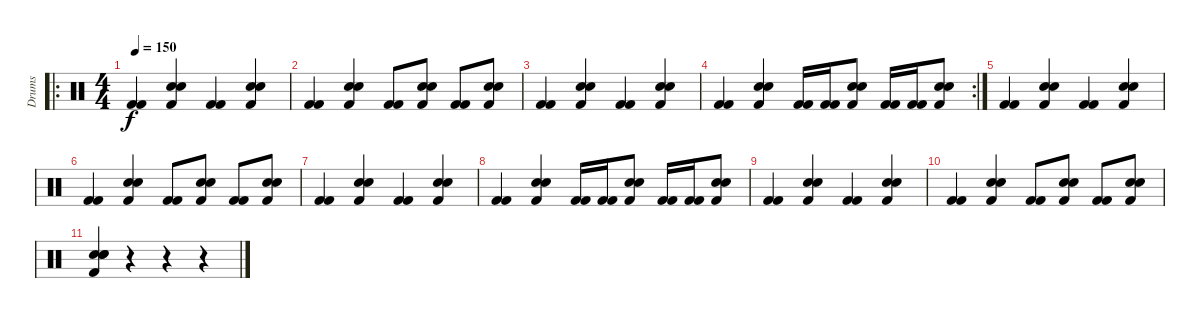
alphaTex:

\track ("Drums" "Drums") {instrument percussion}
\staff {score}
\articulation defaults
\ro
\ts (4 4)
\tempo 150
\clef neutral
\ks c
("Kick (hit) 2" "Kick (hit) 2").4{dy f} ("Snare (hit) 2" "Snare (hit) 2" "Kick (hit) 2").4 ("Kick (hit) 2" "Kick (hit) 2").4 ("Snare (hit) 2" "Snare (hit) 2" "Kick (hit) 2").4 |
("Kick (hit) 2" "Kick (hit) 2").4 ("Snare (hit) 2" "Snare (hit) 2" "Kick (hit) 2").4 ("Kick (hit) 2" "Kick (hit) 2").8 ("Snare (hit) 2" "Snare (hit) 2" "Kick (hit) 2").8 ("Kick (hit) 2" "Kick (hit) 2").8 ("Snare (hit) 2" "Snare (hit) 2" "Kick (hit) 2").8 |
("Kick (hit) 2" "Kick (hit) 2").4 ("Snare (hit) 2" "Snare (hit) 2" "Kick (hit) 2").4 ("Kick (hit) 2" "Kick (hit) 2").4 ("Snare (hit) 2" "Snare (hit) 2" "Kick (hit) 2").4 |
\rc 2
("Kick (hit) 2" "Kick (hit) 2").4 ("Snare (hit) 2" "Snare (hit) 2" "Kick (hit) 2").4 ("Kick (hit) 2" "Kick (hit) 2").16 ("Kick (hit) 2" "Kick (hit) 2").16 ("Snare (hit) 2" "Snare (hit) 2" "Kick (hit) 2").8 ("Kick (hit) 2" "Kick (hit) 2").16 ("Kick (hit) 2" "Kick (hit) 2").16 ("Snare (hit) 2" "Snare (hit) 2" "Kick (hit) 2").8 |
("Kick (hit) 2" "Kick (hit) 2").4 ("Snare (hit) 2" "Snare (hit) 2" "Kick (hit) 2").4 ("Kick (hit) 2" "Kick (hit) 2").4 ("Snare (hit) 2" "Snare (hit) 2" "Kick (hit) 2").4 |
("Kick (hit) 2" "Kick (hit) 2").4 ("Snare (hit) 2" "Snare (hit) 2" "Kick (hit) 2").4 ("Kick (hit) 2" "Kick (hit) 2").8 ("Snare (hit) 2" "Snare (hit) 2" "Kick (hit) 2").8 ("Kick (hit) 2" "Kick (hit) 2").8 ("Snare (hit) 2" "Snare (hit) 2" "Kick (hit) 2").8 |
("Kick (hit) 2" "Kick (hit) 2").4 ("Snare (hit) 2" "Snare (hit) 2" "Kick (hit) 2").4 ("Kick (hit) 2" "Kick (hit) 2").4 ("Snare (hit) 2" "Snare (hit) 2" "Kick (hit) 2").4 |
("Kick (hit) 2" "Kick (hit) 2").4 ("Snare (hit) 2" "Snare (hit) 2" "Kick (hit) 2").4 ("Kick (hit) 2" "Kick (hit) 2").16 ("Kick (hit) 2" "Kick (hit) 2").16 ("Snare (hit) 2" "Snare (hit) 2" "Kick (hit) 2").8 ("Kick (hit) 2" "Kick (hit) 2").16 ("Kick (hit) 2" "Kick (hit) 2").16 ("Snare (hit) 2" "Snare (hit) 2" "Kick (hit) 2").8 |
("Kick (hit) 2" "Kick (hit) 2").4 ("Snare (hit) 2" "Snare (hit) 2" "Kick (hit) 2").4 ("Kick (hit) 2" "Kick (hit) 2").4 ("Snare (hit) 2" "Snare (hit) 2" "Kick (hit) 2").4 |
("Kick (hit) 2" "Kick (hit) 2").4 ("Snare (hit) 2" "Snare (hit) 2" "Kick (hit) 2").4 ("Kick (hit) 2" "Kick (hit) 2").8 ("Snare (hit) 2" "Snare (hit) 2" "Kick (hit) 2").8 ("Kick (hit) 2" "Kick (hit) 2").8 ("Snare (hit) 2" "Snare (hit) 2" "Kick (hit) 2").8 |
("Kick (hit) 2" "Snare (hit) 2" "Snare (hit) 2" "Snare (hit) 2").4 r.4 r.4 r.4
